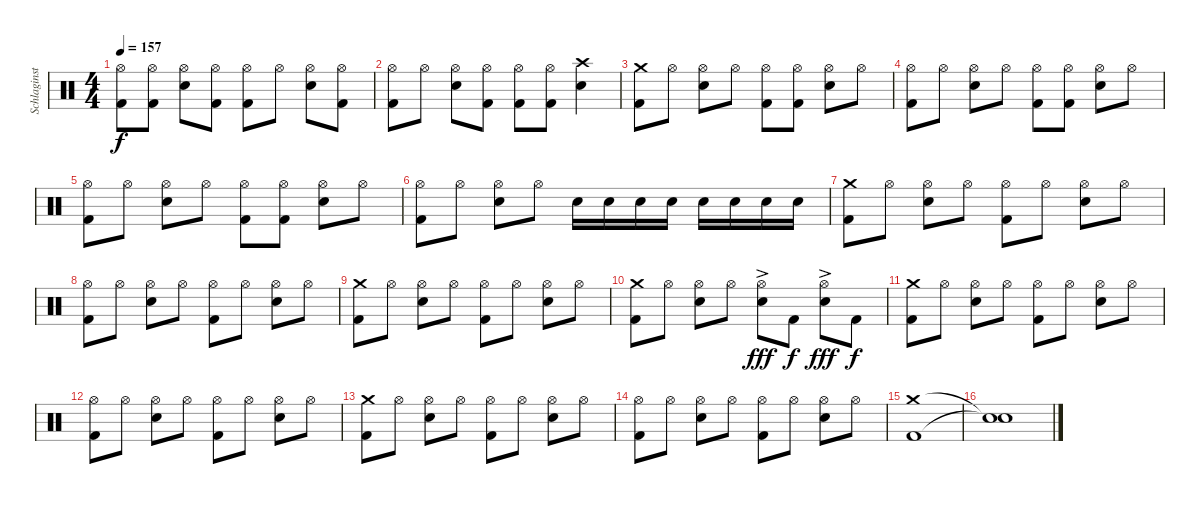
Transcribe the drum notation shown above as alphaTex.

\track ("Schlaginstrumente - Auswahl" "Schlaginst") {instrument percussion}
\staff {score}
\articulation defaults
\ts (4 4)
\tempo 157
\clef neutral
\ks c
("Hi-Hat (open)" "Kick (hit) 2").8{dy f} ("Hi-Hat (open)" "Kick (hit) 2").8 ("Hi-Hat (open)" "Electric Snare (hit)").8 ("Hi-Hat (open)" "Kick (hit) 2").8 ("Hi-Hat (open)" "Kick (hit) 2").8 "Hi-Hat (open)".8 ("Hi-Hat (open)" "Electric Snare (hit)").8 ("Hi-Hat (open)" "Kick (hit) 2").8 |
("Hi-Hat (open)" "Kick (hit) 2").8 "Hi-Hat (open)".8 ("Hi-Hat (open)" "Electric Snare (hit)").8 ("Hi-Hat (open)" "Kick (hit) 2").8 ("Hi-Hat (open)" "Kick (hit) 2").8 ("Hi-Hat (open)" "Kick (hit) 2").8 ("Crash high (hit)" "Electric Snare (hit)").4 |
("Crash medium (hit)" "Kick (hit) 2").8 "Hi-Hat (open)".8 ("Hi-Hat (open)" "Electric Snare (hit)").8 "Hi-Hat (open)".8 ("Hi-Hat (open)" "Kick (hit) 2").8 ("Hi-Hat (open)" "Kick (hit) 2").8 ("Hi-Hat (open)" "Electric Snare (hit)").8 "Hi-Hat (open)".8 |
("Hi-Hat (open)" "Kick (hit) 2").8 "Hi-Hat (open)".8 ("Hi-Hat (open)" "Electric Snare (hit)").8 "Hi-Hat (open)".8 ("Hi-Hat (open)" "Kick (hit) 2").8 ("Hi-Hat (open)" "Kick (hit) 2").8 ("Hi-Hat (open)" "Electric Snare (hit)").8 "Hi-Hat (open)".8 |
("Hi-Hat (open)" "Kick (hit) 2").8 "Hi-Hat (open)".8 ("Hi-Hat (open)" "Electric Snare (hit)").8 "Hi-Hat (open)".8 ("Hi-Hat (open)" "Kick (hit) 2").8 ("Hi-Hat (open)" "Kick (hit) 2").8 ("Hi-Hat (open)" "Electric Snare (hit)").8 "Hi-Hat (open)".8 |
("Hi-Hat (open)" "Kick (hit) 2").8 "Hi-Hat (open)".8 ("Hi-Hat (open)" "Electric Snare (hit)").8 "Hi-Hat (open)".8 "Electric Snare (hit)".16 "Electric Snare (hit)".16 "Electric Snare (hit)".16 "Electric Snare (hit)".16 "Electric Snare (hit)".16 "Electric Snare (hit)".16 "Electric Snare (hit)".16 "Electric Snare (hit)".16 |
("Crash medium (hit)" "Kick (hit) 2").8 "Hi-Hat (open)".8 ("Hi-Hat (open)" "Electric Snare (hit)").8 "Hi-Hat (open)".8 ("Hi-Hat (open)" "Kick (hit) 2").8 "Hi-Hat (open)".8 ("Hi-Hat (open)" "Electric Snare (hit)").8 "Hi-Hat (open)".8 |
("Hi-Hat (open)" "Kick (hit) 2").8 "Hi-Hat (open)".8 ("Hi-Hat (open)" "Electric Snare (hit)").8 "Hi-Hat (open)".8 ("Hi-Hat (open)" "Kick (hit) 2").8 "Hi-Hat (open)".8 ("Hi-Hat (open)" "Electric Snare (hit)").8 "Hi-Hat (open)".8 |
("Crash medium (hit)" "Kick (hit) 2").8 "Hi-Hat (open)".8 ("Hi-Hat (open)" "Electric Snare (hit)").8 "Hi-Hat (open)".8 ("Hi-Hat (open)" "Kick (hit) 2").8 "Hi-Hat (open)".8 ("Hi-Hat (open)" "Electric Snare (hit)").8 "Hi-Hat (open)".8 |
("Crash medium (hit)" "Kick (hit) 2").8 "Hi-Hat (open)".8 ("Hi-Hat (open)" "Electric Snare (hit)").8 "Hi-Hat (open)".8 ("Hi-Hat (open)" "Electric Snare (hit)"{ac}).8{dy fff} "Kick (hit) 2".8{dy f} ("Hi-Hat (open)" "Electric Snare (hit)"{ac}).8{dy fff} "Kick (hit) 2".8{dy f} |
("Crash medium (hit)" "Kick (hit) 2").8 "Hi-Hat (open)".8 ("Hi-Hat (open)" "Electric Snare (hit)").8 "Hi-Hat (open)".8 ("Hi-Hat (open)" "Kick (hit) 2").8 "Hi-Hat (open)".8 ("Hi-Hat (open)" "Electric Snare (hit)").8 "Hi-Hat (open)".8 |
("Hi-Hat (open)" "Kick (hit) 2").8 "Hi-Hat (open)".8 ("Hi-Hat (open)" "Electric Snare (hit)").8 "Hi-Hat (open)".8 ("Hi-Hat (open)" "Kick (hit) 2").8 "Hi-Hat (open)".8 ("Hi-Hat (open)" "Electric Snare (hit)").8 "Hi-Hat (open)".8 |
("Crash medium (hit)" "Kick (hit) 2").8 "Hi-Hat (open)".8 ("Hi-Hat (open)" "Electric Snare (hit)").8 "Hi-Hat (open)".8 ("Hi-Hat (open)" "Kick (hit) 2").8 "Hi-Hat (open)".8 ("Hi-Hat (open)" "Electric Snare (hit)").8 "Hi-Hat (open)".8 |
("Hi-Hat (open)" "Kick (hit) 2").8 "Hi-Hat (open)".8 ("Hi-Hat (open)" "Electric Snare (hit)").8 "Hi-Hat (open)".8 ("Hi-Hat (open)" "Kick (hit) 2").8 "Hi-Hat (open)".8 ("Hi-Hat (open)" "Electric Snare (hit)").8 "Hi-Hat (open)".8 |
("Crash medium (hit)" "Kick (hit) 2").1 |
("Snare (hit)"{t} "Snare (hit)"{t}).1
